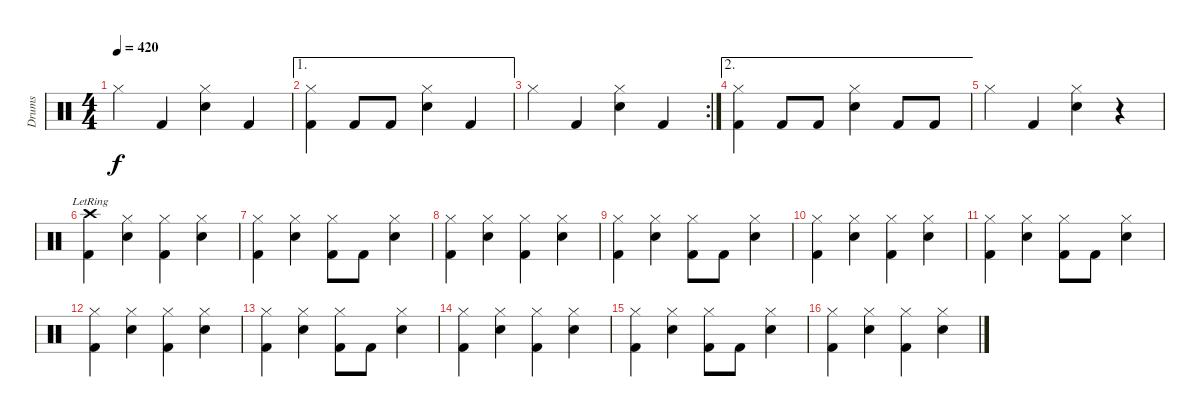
\track ("Drums" "Drums") {instrument percussion}
\staff {score}
\articulation defaults
\ts (4 4)
\tempo 420
\clef neutral
\ks c "Hi-Hat (closed)".4{dy f} "Kick (hit) 2".4
("Hi-Hat (closed)" "Snare (hit) 2").4 "Kick (hit) 2".4 |
\ae 1
("Hi-Hat (closed)" "Kick (hit) 2").4 "Kick (hit) 2".8 "Kick (hit) 2".8 ("Hi-Hat (closed)" "Snare (hit) 2").4 "Kick (hit) 2".4 |
\rc 2 "Hi-Hat (closed)".4 "Kick (hit) 2".4
("Hi-Hat (closed)" "Snare (hit) 2").4 "Kick (hit) 2".4 |
\ae 2
("Hi-Hat (closed)" "Kick (hit) 2").4 "Kick (hit) 2".8 "Kick (hit) 2".8 ("Hi-Hat (closed)" "Snare (hit) 2").4 "Kick (hit) 2".8 "Kick (hit) 2".8 |
"Hi-Hat (closed)".4 "Kick (hit) 2".4 ("Hi-Hat (closed)" "Snare (hit) 2").4 r.4 |
("Crash high (hit)"{lr} "Kick (hit) 2").4 ("Hi-Hat (closed)" "Snare (hit) 2").4 ("Hi-Hat (closed)" "Kick (hit) 2").4 ("Hi-Hat (closed)" "Snare (hit) 2").4 |
("Hi-Hat (closed)" "Kick (hit) 2").4 ("Hi-Hat (closed)" "Snare (hit) 2").4 ("Hi-Hat (closed)" "Kick (hit) 2").8 "Kick (hit) 2".8 ("Hi-Hat (closed)" "Snare (hit) 2").4 |
("Hi-Hat (closed)" "Kick (hit) 2").4 ("Hi-Hat (closed)" "Snare (hit) 2").4 ("Hi-Hat (closed)" "Kick (hit) 2").4 ("Hi-Hat (closed)" "Snare (hit) 2").4 |
("Hi-Hat (closed)" "Kick (hit) 2").4 ("Hi-Hat (closed)" "Snare (hit) 2").4 ("Hi-Hat (closed)" "Kick (hit) 2").8 "Kick (hit) 2".8 ("Hi-Hat (closed)" "Snare (hit) 2").4 |
("Hi-Hat (closed)" "Kick (hit) 2").4 ("Hi-Hat (closed)" "Snare (hit) 2").4 ("Hi-Hat (closed)" "Kick (hit) 2").4 ("Hi-Hat (closed)" "Snare (hit) 2").4 |
("Hi-Hat (closed)" "Kick (hit) 2").4 ("Hi-Hat (closed)" "Snare (hit) 2").4 ("Hi-Hat (closed)" "Kick (hit) 2").8 "Kick (hit) 2".8 ("Hi-Hat (closed)" "Snare (hit) 2").4 |
("Hi-Hat (closed)" "Kick (hit) 2").4 ("Hi-Hat (closed)" "Snare (hit) 2").4 ("Hi-Hat (closed)" "Kick (hit) 2").4 ("Hi-Hat (closed)" "Snare (hit) 2").4 |
("Hi-Hat (closed)" "Kick (hit) 2").4 ("Hi-Hat (closed)" "Snare (hit) 2").4 ("Hi-Hat (closed)" "Kick (hit) 2").8 "Kick (hit) 2".8 ("Hi-Hat (closed)" "Snare (hit) 2").4 |
("Hi-Hat (closed)" "Kick (hit) 2").4 ("Hi-Hat (closed)" "Snare (hit) 2").4 ("Hi-Hat (closed)" "Kick (hit) 2").4 ("Hi-Hat (closed)" "Snare (hit) 2").4 |
("Hi-Hat (closed)" "Kick (hit) 2").4 ("Hi-Hat (closed)" "Snare (hit) 2").4 ("Hi-Hat (closed)" "Kick (hit) 2").8 "Kick (hit) 2".8 ("Hi-Hat (closed)" "Snare (hit) 2").4 |
("Hi-Hat (closed)" "Kick (hit) 2").4 ("Hi-Hat (closed)" "Snare (hit) 2").4 ("Hi-Hat (closed)" "Kick (hit) 2").4 ("Hi-Hat (closed)" "Snare (hit) 2").4
